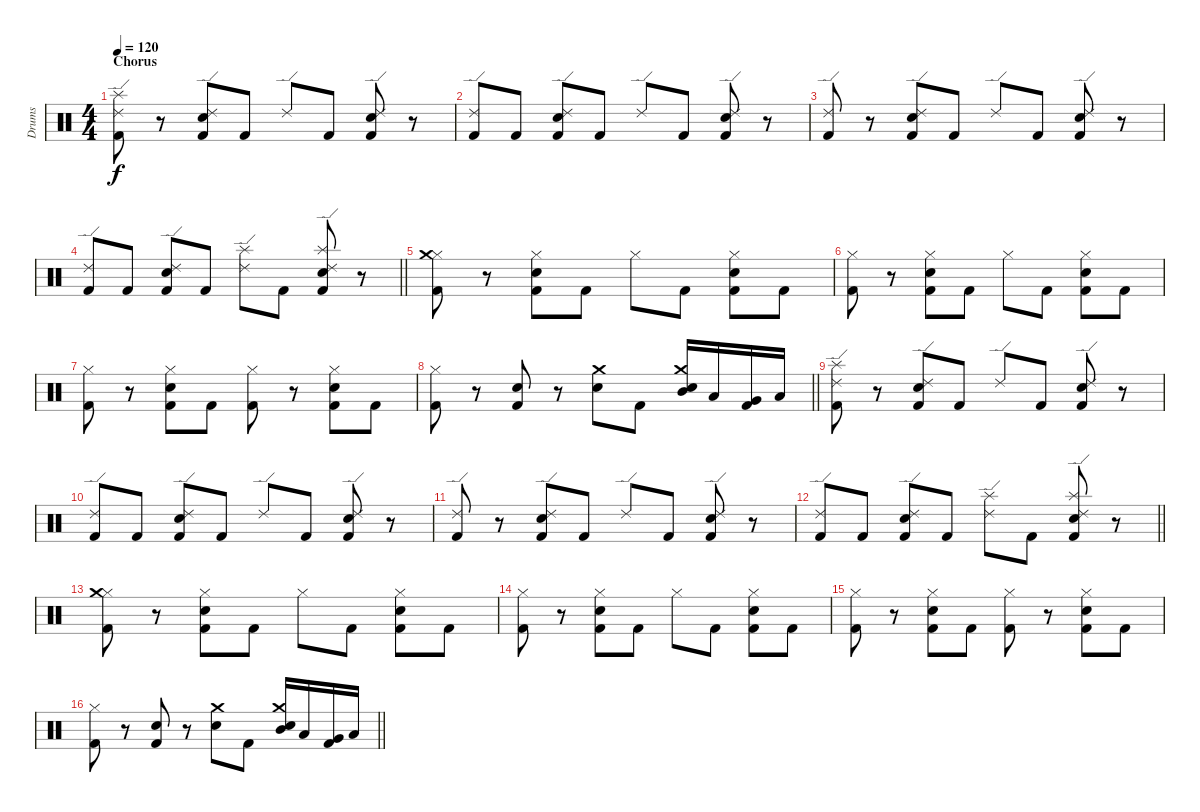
\track ("Drums" "Drums") {instrument percussion}
\staff {score}
\articulation defaults
\ts (4 4)
\section ("" "Chorus")
\tempo 120
\clef neutral
\ks c
("Kick (hit) 2" "Ride (edge) 2" "Splash (hit)").8{dy f} r.8 ("Ride (edge) 2" "Kick (hit) 2" "Snare (hit) 2").8 "Kick (hit) 2".8 "Ride (edge) 2".8 "Kick (hit) 2".8 ("Ride (edge) 2" "Kick (hit) 2" "Snare (hit) 2").8 r.8 |
("Kick (hit) 2" "Ride (edge) 2").8 "Kick (hit) 2".8 ("Snare (hit) 2" "Kick (hit) 2" "Ride (edge) 2").8 "Kick (hit) 2".8 "Ride (edge) 2".8 "Kick (hit) 2".8 ("Snare (hit) 2" "Kick (hit) 2" "Ride (edge) 2").8 r.8 |
("Kick (hit) 2" "Ride (edge) 2").8 r.8 ("Snare (hit) 2" "Kick (hit) 2" "Ride (edge) 2").8 "Kick (hit) 2".8 "Ride (edge) 2".8 "Kick (hit) 2".8 ("Snare (hit) 2" "Kick (hit) 2" "Ride (edge) 2").8 r.8 |
\barLineRight lightlight
("Kick (hit) 2" "Ride (edge) 2").8 "Kick (hit) 2".8 ("Snare (hit) 2" "Kick (hit) 2" "Ride (edge) 2").8 "Kick (hit) 2".8 ("Ride (edge) 2" "Splash (hit)").8 "Kick (hit) 2".8 ("Snare (hit) 2" "Kick (hit) 2" "Ride (edge) 2" "Splash (hit)").8 r.8 |
("Kick (hit) 2" "Hi-Hat (closed)" "Crash medium (hit)").8 r.8 ("Hi-Hat (closed)" "Kick (hit) 2" "Snare (hit) 2").8 "Kick (hit) 2".8 "Hi-Hat (closed)".8 "Kick (hit) 2".8 ("Kick (hit) 2" "Snare (hit) 2" "Hi-Hat (closed)").8 "Kick (hit) 2".8 |
("Hi-Hat (closed)" "Kick (hit) 2").8 r.8 ("Hi-Hat (closed)" "Kick (hit) 2" "Snare (hit) 2").8 "Kick (hit) 2".8 "Hi-Hat (closed)".8 "Kick (hit) 2".8 ("Hi-Hat (closed)" "Snare (hit) 2" "Kick (hit) 2").8 "Kick (hit) 2".8 |
("Kick (hit) 2" "Hi-Hat (closed)").8 r.8 ("Snare (hit) 2" "Kick (hit) 2" "Hi-Hat (closed)").8 "Kick (hit) 2".8 ("Kick (hit) 2" "Hi-Hat (closed)").8 r.8 ("Kick (hit) 2" "Snare (hit) 2" "Hi-Hat (closed)").8 "Kick (hit) 2".8 |
\barLineRight lightlight
("Kick (hit) 2" "Hi-Hat (closed)").8 r.8 ("Kick (hit) 2" "Snare (hit) 2").8 r.8 ("Snare (hit) 2" "Crash medium (hit)").8 "Kick (hit) 2".8 ("Snare (hit) 2" "Mid Tom (hit)" "Crash medium (hit)").16 "Low Tom (hit)".16 ("Kick (hit) 2" "Very Low Tom (hit)").16 "Low Floor Tom (hit)".16 |
("Kick (hit) 2" "Ride (edge) 2" "Splash (hit)").8 r.8 ("Ride (edge) 2" "Kick (hit) 2" "Snare (hit) 2").8 "Kick (hit) 2".8 "Ride (edge) 2".8 "Kick (hit) 2".8 ("Ride (edge) 2" "Kick (hit) 2" "Snare (hit) 2").8 r.8 |
("Kick (hit) 2" "Ride (edge) 2").8 "Kick (hit) 2".8 ("Snare (hit) 2" "Kick (hit) 2" "Ride (edge) 2").8 "Kick (hit) 2".8 "Ride (edge) 2".8 "Kick (hit) 2".8 ("Snare (hit) 2" "Kick (hit) 2" "Ride (edge) 2").8 r.8 |
("Kick (hit) 2" "Ride (edge) 2").8 r.8 ("Snare (hit) 2" "Kick (hit) 2" "Ride (edge) 2").8 "Kick (hit) 2".8 "Ride (edge) 2".8 "Kick (hit) 2".8 ("Snare (hit) 2" "Kick (hit) 2" "Ride (edge) 2").8 r.8 |
\barLineRight lightlight
("Kick (hit) 2" "Ride (edge) 2").8 "Kick (hit) 2".8 ("Snare (hit) 2" "Kick (hit) 2" "Ride (edge) 2").8 "Kick (hit) 2".8 ("Ride (edge) 2" "Splash (hit)").8 "Kick (hit) 2".8 ("Snare (hit) 2" "Kick (hit) 2" "Ride (edge) 2" "Splash (hit)").8 r.8 |
("Kick (hit) 2" "Hi-Hat (closed)" "Crash medium (hit)").8 r.8 ("Hi-Hat (closed)" "Kick (hit) 2" "Snare (hit) 2").8 "Kick (hit) 2".8 "Hi-Hat (closed)".8 "Kick (hit) 2".8 ("Kick (hit) 2" "Snare (hit) 2" "Hi-Hat (closed)").8 "Kick (hit) 2".8 |
("Hi-Hat (closed)" "Kick (hit) 2").8 r.8 ("Hi-Hat (closed)" "Kick (hit) 2" "Snare (hit) 2").8 "Kick (hit) 2".8 "Hi-Hat (closed)".8 "Kick (hit) 2".8 ("Hi-Hat (closed)" "Snare (hit) 2" "Kick (hit) 2").8 "Kick (hit) 2".8 |
("Kick (hit) 2" "Hi-Hat (closed)").8 r.8 ("Snare (hit) 2" "Kick (hit) 2" "Hi-Hat (closed)").8 "Kick (hit) 2".8 ("Kick (hit) 2" "Hi-Hat (closed)").8 r.8 ("Kick (hit) 2" "Snare (hit) 2" "Hi-Hat (closed)").8 "Kick (hit) 2".8 |
\barLineRight lightlight
("Kick (hit) 2" "Hi-Hat (closed)").8 r.8 ("Kick (hit) 2" "Snare (hit) 2").8 r.8 ("Snare (hit) 2" "Crash medium (hit)").8 "Kick (hit) 2".8 ("Snare (hit) 2" "Mid Tom (hit)" "Crash medium (hit)").16 "Low Tom (hit)".16 ("Kick (hit) 2" "Very Low Tom (hit)").16 "Low Floor Tom (hit)".16
